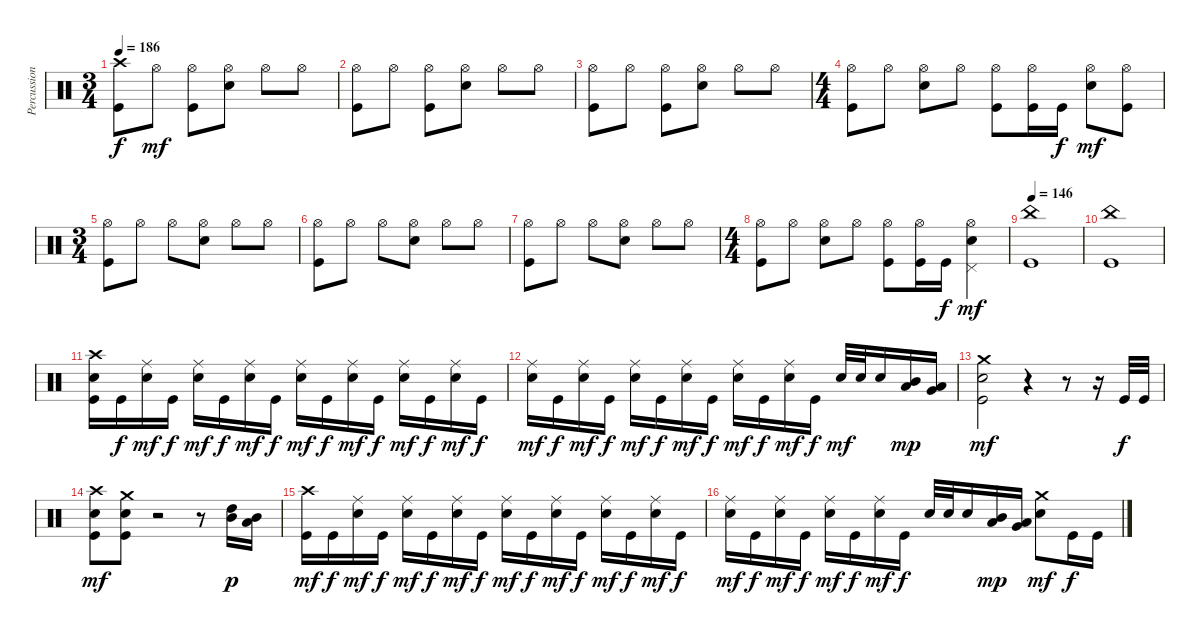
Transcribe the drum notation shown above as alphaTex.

\track ("Percussions" "Percussion") {instrument percussion}
\staff {score}
\articulation defaults
\ts (3 4)
\tempo 186
\clef neutral
\ks c
("Kick (hit)" "Crash high (hit)").8{dy f} "Hi-Hat (open)".8{dy mf} ("Kick (hit)" "Hi-Hat (open)").8 ("Electric Snare (hit)" "Hi-Hat (open)").8 "Hi-Hat (open)".8 "Hi-Hat (open)".8 |
("Kick (hit)" "Hi-Hat (open)").8 "Hi-Hat (open)".8 ("Kick (hit)" "Hi-Hat (open)").8 ("Electric Snare (hit)" "Hi-Hat (open)").8 "Hi-Hat (open)".8 "Hi-Hat (open)".8 |
("Kick (hit)" "Hi-Hat (open)").8 "Hi-Hat (open)".8 ("Kick (hit)" "Hi-Hat (open)").8 ("Electric Snare (hit)" "Hi-Hat (open)").8 "Hi-Hat (open)".8 "Hi-Hat (open)".8 |
\ts (4 4)
("Kick (hit)" "Hi-Hat (open)").8 "Hi-Hat (open)".8 ("Electric Snare (hit)" "Hi-Hat (open)").8 "Hi-Hat (open)".8 ("Kick (hit)" "Hi-Hat (open)").8 ("Kick (hit)" "Hi-Hat (open)").16 "Kick (hit)".16{dy f} ("Electric Snare (hit)" "Hi-Hat (open)").8{dy mf} ("Kick (hit)" "Hi-Hat (open)").8 |
\ts (3 4)
("Kick (hit)" "Hi-Hat (open)").8 "Hi-Hat (open)".8 "Hi-Hat (open)".8 ("Electric Snare (hit)" "Hi-Hat (open)").8 "Hi-Hat (open)".8 "Hi-Hat (open)".8 |
("Kick (hit)" "Hi-Hat (open)").8 "Hi-Hat (open)".8 "Hi-Hat (open)".8 ("Electric Snare (hit)" "Hi-Hat (open)").8 "Hi-Hat (open)".8 "Hi-Hat (open)".8 |
("Kick (hit)" "Hi-Hat (open)").8 "Hi-Hat (open)".8 "Hi-Hat (open)".8 ("Electric Snare (hit)" "Hi-Hat (open)").8 "Hi-Hat (open)".8 "Hi-Hat (open)".8 |
\ts (4 4)
("Kick (hit)" "Hi-Hat (open)").8 "Hi-Hat (open)".8 ("Electric Snare (hit)" "Hi-Hat (open)").8 "Hi-Hat (open)".8 ("Kick (hit)" "Hi-Hat (open)").8 ("Kick (hit)" "Hi-Hat (open)").16 "Kick (hit)".16{dy f} ("Electric Snare (hit)" "Hi-Hat (open)" "Pedal Hi-Hat (hit)").4{dy mf} |
\tempo 146
("Kick (hit)" "China (hit)").1 |
("Kick (hit)" "China (hit)").1 |
("Kick (hit)" "Electric Snare (hit)" "Crash high (hit)").16 "Kick (hit)".16{dy f} ("Electric Snare (hit)" "Ride (middle)").16{dy mf} "Kick (hit)".16{dy f} ("Electric Snare (hit)" "Ride (middle)").16{dy mf} "Kick (hit)".16{dy f} ("Electric Snare (hit)" "Ride (middle)").16{dy mf} "Kick (hit)".16{dy f} ("Electric Snare (hit)" "Ride (middle)").16{dy mf} "Kick (hit)".16{dy f} ("Electric Snare (hit)" "Ride (middle)").16{dy mf} "Kick (hit)".16{dy f} ("Electric Snare (hit)" "Ride (middle)").16{dy mf} "Kick (hit)".16{dy f} ("Electric Snare (hit)" "Ride (middle)").16{dy mf} "Kick (hit)".16{dy f} |
("Electric Snare (hit)" "Ride (middle)").16{dy mf} "Kick (hit)".16{dy f} ("Electric Snare (hit)" "Ride (middle)").16{dy mf} "Kick (hit)".16{dy f} ("Electric Snare (hit)" "Ride (middle)").16{dy mf} "Kick (hit)".16{dy f} ("Electric Snare (hit)" "Ride (middle)").16{dy mf} "Kick (hit)".16{dy f} ("Electric Snare (hit)" "Ride (middle)").16{dy mf} "Kick (hit)".16{dy f} ("Electric Snare (hit)" "Ride (middle)").16{dy mf} "Kick (hit)".16{dy f} "Electric Snare (hit)".32{dy mf} "Electric Snare (hit)".32 "Electric Snare (hit)".16 ("Low Tom (hit)" "Mid Tom (hit)").16{dy mp} ("Very Low Tom (hit)" "Low Tom (hit)").16 |
("Kick (hit)" "Electric Snare (hit)" "Crash medium (hit)").2{dy mf} r.4 r.8 r.16 "Kick (hit)".32{dy f} "Kick (hit)".32 |
("Kick (hit)" "Electric Snare (hit)" "Crash high (hit)").8{dy mf} ("Kick (hit)" "Electric Snare (hit)" "Crash medium (hit)").8 r.2 r.8 ("High Tom (hit)" "Mid Tom (hit)").16{dy p} ("Mid Tom (hit)" "Low Tom (hit)").16 |
("Kick (hit)" "Crash high (hit)").16{dy mf} "Kick (hit)".16{dy f} ("Electric Snare (hit)" "Ride (middle)").16{dy mf} "Kick (hit)".16{dy f} ("Electric Snare (hit)" "Ride (middle)").16{dy mf} "Kick (hit)".16{dy f} ("Electric Snare (hit)" "Ride (middle)").16{dy mf} "Kick (hit)".16{dy f} ("Electric Snare (hit)" "Ride (middle)").16{dy mf} "Kick (hit)".16{dy f} ("Electric Snare (hit)" "Ride (middle)").16{dy mf} "Kick (hit)".16{dy f} ("Electric Snare (hit)" "Ride (middle)").16{dy mf} "Kick (hit)".16{dy f} ("Electric Snare (hit)" "Ride (middle)").16{dy mf} "Kick (hit)".16{dy f} |
("Electric Snare (hit)" "Ride (middle)").16{dy mf} "Kick (hit)".16{dy f} ("Electric Snare (hit)" "Ride (middle)").16{dy mf} "Kick (hit)".16{dy f} ("Electric Snare (hit)" "Ride (middle)").16{dy mf} "Kick (hit)".16{dy f} ("Electric Snare (hit)" "Ride (middle)").16{dy mf} "Kick (hit)".16{dy f} "Electric Snare (hit)".32 "Electric Snare (hit)".32 "Electric Snare (hit)".16 ("Low Tom (hit)" "Mid Tom (hit)").16{dy mp} ("Very Low Tom (hit)" "Low Tom (hit)").16 ("Electric Snare (hit)" "Crash medium (hit)").8{dy mf} "Kick (hit)".16{dy f} "Kick (hit)".16
